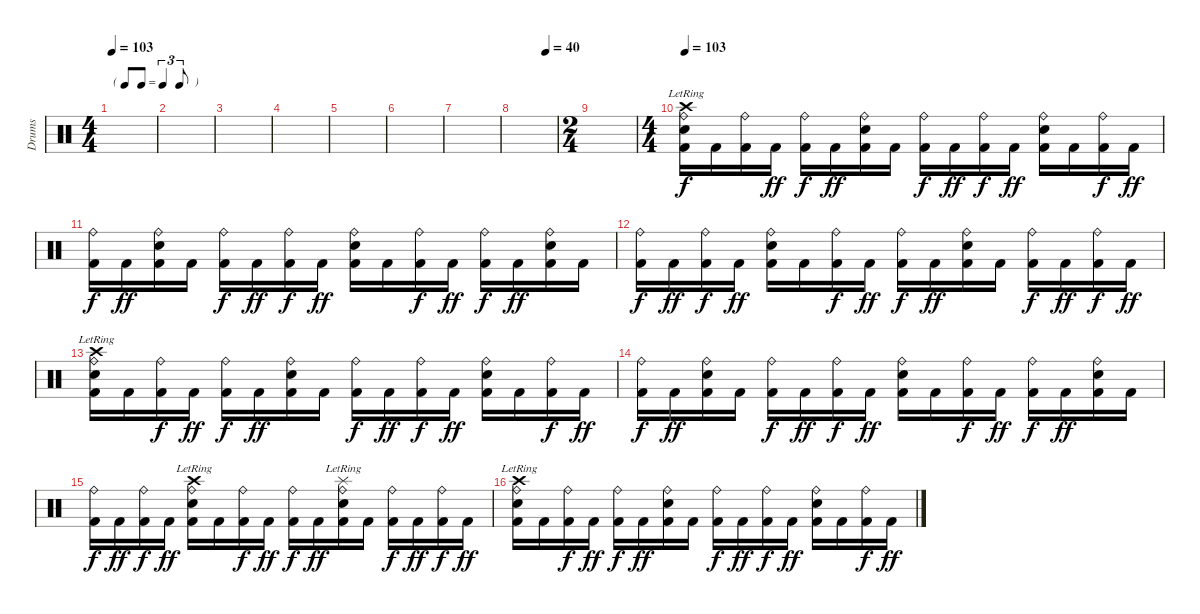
\track ("Drums" "Drums") {instrument percussion}
\staff {score}
\articulation defaults
\ts (4 4)
\tf triplet8th
\tempo 103
\clef neutral
\ks c
|
|
|
|
|
|
|
\tempo (40 0.75)
|
\ts (2 4)
|
\ts (4 4)
\tempo 103
("Ride (bell)"{lr} "Crash high (hit)"{lr} "Electric Snare (hit)" "Kick (hit) 2").16 "Kick (hit) 2".16 ("Ride (bell)" "Kick (hit) 2").16{dy f} "Kick (hit) 2".16{dy ff} ("Ride (bell)" "Kick (hit) 2").16{dy f} "Kick (hit) 2".16{dy ff} ("Ride (bell)" "Electric Snare (hit)" "Kick (hit) 2").16 "Kick (hit) 2".16 ("Ride (bell)" "Kick (hit) 2").16{dy f} "Kick (hit) 2".16{dy ff} ("Ride (bell)" "Kick (hit) 2").16{dy f} "Kick (hit) 2".16{dy ff} ("Ride (bell)" "Electric Snare (hit)" "Kick (hit) 2").16 "Kick (hit) 2".16 ("Ride (bell)" "Kick (hit) 2").16{dy f} "Kick (hit) 2".16{dy ff} |
("Ride (bell)" "Kick (hit) 2").16{dy f} "Kick (hit) 2".16{dy ff} ("Ride (bell)" "Electric Snare (hit)" "Kick (hit) 2").16 "Kick (hit) 2".16 ("Ride (bell)" "Kick (hit) 2").16{dy f} "Kick (hit) 2".16{dy ff} ("Ride (bell)" "Kick (hit) 2").16{dy f} "Kick (hit) 2".16{dy ff} ("Ride (bell)" "Electric Snare (hit)" "Kick (hit) 2").16 "Kick (hit) 2".16 ("Ride (bell)" "Kick (hit) 2").16{dy f} "Kick (hit) 2".16{dy ff} ("Ride (bell)" "Kick (hit) 2").16{dy f} "Kick (hit) 2".16{dy ff} ("Ride (bell)" "Electric Snare (hit)" "Kick (hit) 2").16 "Kick (hit) 2".16 |
("Ride (bell)" "Kick (hit) 2").16{dy f} "Kick (hit) 2".16{dy ff} ("Ride (bell)" "Kick (hit) 2").16{dy f} "Kick (hit) 2".16{dy ff} ("Ride (bell)" "Electric Snare (hit)" "Kick (hit) 2").16 "Kick (hit) 2".16 ("Ride (bell)" "Kick (hit) 2").16{dy f} "Kick (hit) 2".16{dy ff} ("Ride (bell)" "Kick (hit) 2").16{dy f} "Kick (hit) 2".16{dy ff} ("Ride (bell)" "Electric Snare (hit)" "Kick (hit) 2").16 "Kick (hit) 2".16 ("Ride (bell)" "Kick (hit) 2").16{dy f} "Kick (hit) 2".16{dy ff} ("Ride (bell)" "Kick (hit) 2").16{dy f} "Kick (hit) 2".16{dy ff} |
("Ride (bell)"{lr} "Crash high (hit)"{lr} "Electric Snare (hit)" "Kick (hit) 2").16 "Kick (hit) 2".16 ("Ride (bell)" "Kick (hit) 2").16{dy f} "Kick (hit) 2".16{dy ff} ("Ride (bell)" "Kick (hit) 2").16{dy f} "Kick (hit) 2".16{dy ff} ("Ride (bell)" "Electric Snare (hit)" "Kick (hit) 2").16 "Kick (hit) 2".16 ("Ride (bell)" "Kick (hit) 2").16{dy f} "Kick (hit) 2".16{dy ff} ("Ride (bell)" "Kick (hit) 2").16{dy f} "Kick (hit) 2".16{dy ff} ("Ride (bell)" "Electric Snare (hit)" "Kick (hit) 2").16 "Kick (hit) 2".16 ("Ride (bell)" "Kick (hit) 2").16{dy f} "Kick (hit) 2".16{dy ff} |
("Ride (bell)" "Kick (hit) 2").16{dy f} "Kick (hit) 2".16{dy ff} ("Ride (bell)" "Electric Snare (hit)" "Kick (hit) 2").16 "Kick (hit) 2".16 ("Ride (bell)" "Kick (hit) 2").16{dy f} "Kick (hit) 2".16{dy ff} ("Ride (bell)" "Kick (hit) 2").16{dy f} "Kick (hit) 2".16{dy ff} ("Ride (bell)" "Electric Snare (hit)" "Kick (hit) 2").16 "Kick (hit) 2".16 ("Ride (bell)" "Kick (hit) 2").16{dy f} "Kick (hit) 2".16{dy ff} ("Ride (bell)" "Kick (hit) 2").16{dy f} "Kick (hit) 2".16{dy ff} ("Ride (bell)" "Electric Snare (hit)" "Kick (hit) 2").16 "Kick (hit) 2".16 |
("Ride (bell)" "Kick (hit) 2").16{dy f} "Kick (hit) 2".16{dy ff} ("Ride (bell)" "Kick (hit) 2").16{dy f} "Kick (hit) 2".16{dy ff} ("Ride (bell)" "Electric Snare (hit)" "Crash high (hit)"{lr} "Kick (hit) 2").16 "Kick (hit) 2".16 ("Ride (bell)" "Kick (hit) 2").16{dy f} "Kick (hit) 2".16{dy ff} ("Ride (bell)" "Kick (hit) 2").16{dy f} "Kick (hit) 2".16{dy ff} ("Ride (bell)" "Electric Snare (hit)" "Splash (hit)"{lr} "Kick (hit) 2").16 "Kick (hit) 2".16 ("Ride (bell)" "Kick (hit) 2").16{dy f} "Kick (hit) 2".16{dy ff} ("Ride (bell)" "Kick (hit) 2").16{dy f} "Kick (hit) 2".16{dy ff} |
("Ride (bell)"{lr} "Crash high (hit)"{lr} "Electric Snare (hit)" "Kick (hit) 2").16 "Kick (hit) 2".16 ("Ride (bell)" "Kick (hit) 2").16{dy f} "Kick (hit) 2".16{dy ff} ("Ride (bell)" "Kick (hit) 2").16{dy f} "Kick (hit) 2".16{dy ff} ("Ride (bell)" "Electric Snare (hit)" "Kick (hit) 2").16 "Kick (hit) 2".16 ("Ride (bell)" "Kick (hit) 2").16{dy f} "Kick (hit) 2".16{dy ff} ("Ride (bell)" "Kick (hit) 2").16{dy f} "Kick (hit) 2".16{dy ff} ("Ride (bell)" "Electric Snare (hit)" "Kick (hit) 2").16 "Kick (hit) 2".16 ("Ride (bell)" "Kick (hit) 2").16{dy f} "Kick (hit) 2".16{dy ff}
